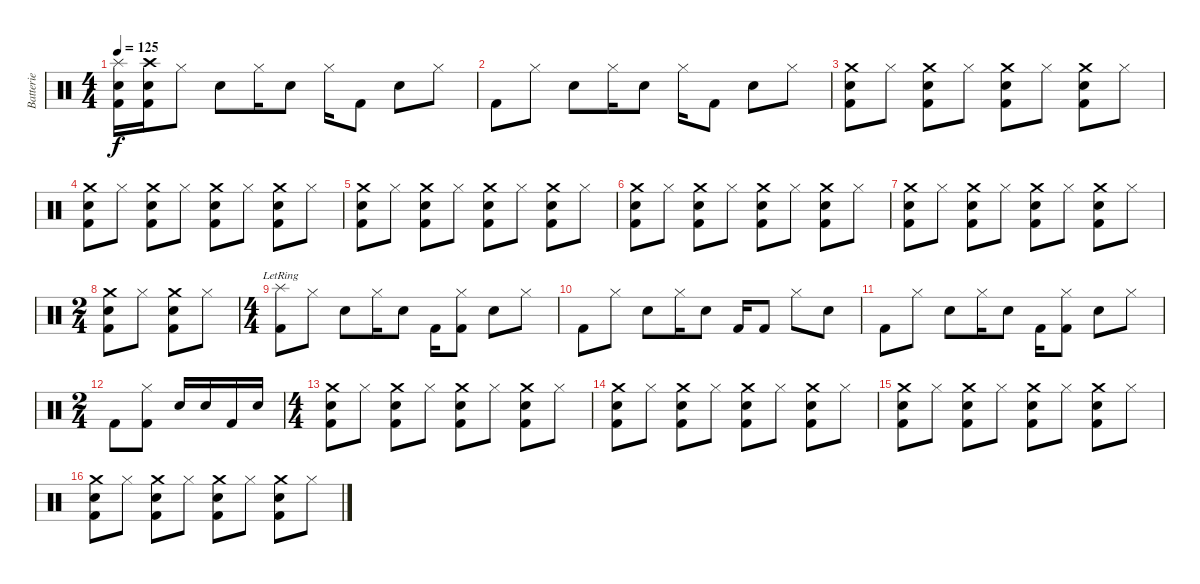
\track ("Batterie" "Batterie") {instrument percussion}
\staff {score}
\articulation defaults
\ts (4 4)
\tempo 125
\clef neutral
\ks c
("Splash (hit)" "Kick (hit) 2" "Electric Snare (hit)").16{dy f} ("Crash high (hit)" "Kick (hit) 2" "Electric Snare (hit)").16 "Hi-Hat (closed)".8 "Electric Snare (hit)".8 "Hi-Hat (closed)".16 "Electric Snare (hit)".8 "Hi-Hat (closed)".16 "Kick (hit) 2".8 "Electric Snare (hit)".8 "Hi-Hat (closed)".8 |
"Kick (hit) 2".8 "Hi-Hat (closed)".8 "Electric Snare (hit)".8 "Hi-Hat (closed)".16 "Electric Snare (hit)".8 "Hi-Hat (closed)".16 "Kick (hit) 2".8 "Electric Snare (hit)".8 "Hi-Hat (closed)".8 |
("Electric Snare (hit)" "Crash medium (hit)" "Kick (hit) 2").8 "Hi-Hat (closed)".8 ("Electric Snare (hit)" "Crash medium (hit)" "Kick (hit) 2").8 "Hi-Hat (closed)".8 ("Electric Snare (hit)" "Crash medium (hit)" "Kick (hit) 2").8 "Hi-Hat (closed)".8 ("Electric Snare (hit)" "Crash medium (hit)" "Kick (hit) 2").8 "Hi-Hat (closed)".8 |
("Electric Snare (hit)" "Crash medium (hit)" "Kick (hit) 2").8 "Hi-Hat (closed)".8 ("Electric Snare (hit)" "Crash medium (hit)" "Kick (hit) 2").8 "Hi-Hat (closed)".8 ("Electric Snare (hit)" "Crash medium (hit)" "Kick (hit) 2").8 "Hi-Hat (closed)".8 ("Electric Snare (hit)" "Crash medium (hit)" "Kick (hit) 2").8 "Hi-Hat (closed)".8 |
("Electric Snare (hit)" "Crash medium (hit)" "Kick (hit) 2").8 "Hi-Hat (closed)".8 ("Electric Snare (hit)" "Crash medium (hit)" "Kick (hit) 2").8 "Hi-Hat (closed)".8 ("Electric Snare (hit)" "Crash medium (hit)" "Kick (hit) 2").8 "Hi-Hat (closed)".8 ("Electric Snare (hit)" "Crash medium (hit)" "Kick (hit) 2").8 "Hi-Hat (closed)".8 |
("Electric Snare (hit)" "Crash medium (hit)" "Kick (hit) 2").8 "Hi-Hat (closed)".8 ("Electric Snare (hit)" "Crash medium (hit)" "Kick (hit) 2").8 "Hi-Hat (closed)".8 ("Electric Snare (hit)" "Crash medium (hit)" "Kick (hit) 2").8 "Hi-Hat (closed)".8 ("Electric Snare (hit)" "Crash medium (hit)" "Kick (hit) 2").8 "Hi-Hat (closed)".8 |
("Electric Snare (hit)" "Crash medium (hit)" "Kick (hit) 2").8 "Hi-Hat (closed)".8 ("Electric Snare (hit)" "Crash medium (hit)" "Kick (hit) 2").8 "Hi-Hat (closed)".8 ("Electric Snare (hit)" "Crash medium (hit)" "Kick (hit) 2").8 "Hi-Hat (closed)".8 ("Electric Snare (hit)" "Crash medium (hit)" "Kick (hit) 2").8 "Hi-Hat (closed)".8 |
\ts (2 4)
("Electric Snare (hit)" "Crash medium (hit)" "Kick (hit) 2").8 "Hi-Hat (closed)".8 ("Electric Snare (hit)" "Crash medium (hit)" "Kick (hit) 2").8 "Hi-Hat (closed)".8 |
\ts (4 4)
("Splash (hit)"{lr} "Kick (hit) 2").8 "Hi-Hat (closed)".8 "Electric Snare (hit)".8 "Hi-Hat (closed)".16 "Electric Snare (hit)".8 "Kick (hit) 2".16 ("Hi-Hat (closed)" "Kick (hit) 2").8 "Electric Snare (hit)".8 "Hi-Hat (closed)".8 |
"Kick (hit) 2".8 "Hi-Hat (closed)".8 "Electric Snare (hit)".8 "Hi-Hat (closed)".16 "Electric Snare (hit)".8 "Kick (hit) 2".16 "Kick (hit) 2".8 "Hi-Hat (closed)".8 "Electric Snare (hit)".8 |
"Kick (hit) 2".8 "Hi-Hat (closed)".8 "Electric Snare (hit)".8 "Hi-Hat (closed)".16 "Electric Snare (hit)".8 "Kick (hit) 2".16 ("Hi-Hat (closed)" "Kick (hit) 2").8 "Electric Snare (hit)".8 "Hi-Hat (closed)".8 |
\ts (2 4)
"Kick (hit) 2".8 ("Hi-Hat (closed)" "Kick (hit) 2").8 "Electric Snare (hit)".16 "Electric Snare (hit)".16 "Kick (hit) 2".16 "Electric Snare (hit)".16 |
\ts (4 4)
("Electric Snare (hit)" "Crash medium (hit)" "Kick (hit) 2").8 "Hi-Hat (closed)".8 ("Electric Snare (hit)" "Crash medium (hit)" "Kick (hit) 2").8 "Hi-Hat (closed)".8 ("Electric Snare (hit)" "Crash medium (hit)" "Kick (hit) 2").8 "Hi-Hat (closed)".8 ("Electric Snare (hit)" "Crash medium (hit)" "Kick (hit) 2").8 "Hi-Hat (closed)".8 |
("Electric Snare (hit)" "Crash medium (hit)" "Kick (hit) 2").8 "Hi-Hat (closed)".8 ("Electric Snare (hit)" "Crash medium (hit)" "Kick (hit) 2").8 "Hi-Hat (closed)".8 ("Electric Snare (hit)" "Crash medium (hit)" "Kick (hit) 2").8 "Hi-Hat (closed)".8 ("Electric Snare (hit)" "Crash medium (hit)" "Kick (hit) 2").8 "Hi-Hat (closed)".8 |
("Electric Snare (hit)" "Crash medium (hit)" "Kick (hit) 2").8 "Hi-Hat (closed)".8 ("Electric Snare (hit)" "Crash medium (hit)" "Kick (hit) 2").8 "Hi-Hat (closed)".8 ("Electric Snare (hit)" "Crash medium (hit)" "Kick (hit) 2").8 "Hi-Hat (closed)".8 ("Electric Snare (hit)" "Crash medium (hit)" "Kick (hit) 2").8 "Hi-Hat (closed)".8 |
("Electric Snare (hit)" "Crash medium (hit)" "Kick (hit) 2").8 "Hi-Hat (closed)".8 ("Electric Snare (hit)" "Crash medium (hit)" "Kick (hit) 2").8 "Hi-Hat (closed)".8 ("Electric Snare (hit)" "Crash medium (hit)" "Kick (hit) 2").8 "Hi-Hat (closed)".8 ("Electric Snare (hit)" "Crash medium (hit)" "Kick (hit) 2").8 "Hi-Hat (closed)".8
